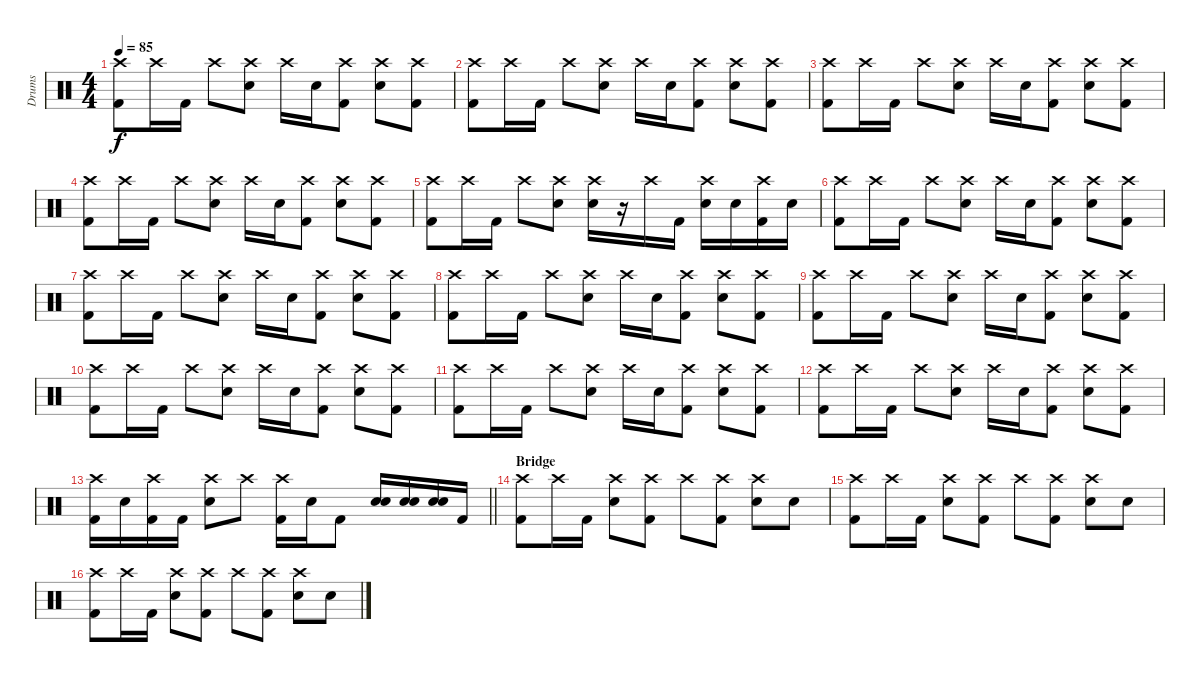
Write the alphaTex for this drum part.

\track ("Drums" "Drums") {instrument percussion}
\staff {score}
\articulation defaults
\ts (4 4)
\tempo 85
\clef neutral
\ks c
("Crash high (hit)" "Kick (hit) 2").8{dy f} "Crash high (hit)".16 "Kick (hit) 2".16 "Crash high (hit)".8 ("Crash high (hit)" "Electric Snare (hit)").8 "Crash high (hit)".16 "Electric Snare (hit)".16 ("Crash high (hit)" "Kick (hit) 2").8 ("Crash high (hit)" "Electric Snare (hit)").8 ("Crash high (hit)" "Kick (hit) 2").8 |
("Crash high (hit)" "Kick (hit) 2").8 "Crash high (hit)".16 "Kick (hit) 2".16 "Crash high (hit)".8 ("Crash high (hit)" "Electric Snare (hit)").8 "Crash high (hit)".16 "Electric Snare (hit)".16 ("Crash high (hit)" "Kick (hit) 2").8 ("Crash high (hit)" "Electric Snare (hit)").8 ("Crash high (hit)" "Kick (hit) 2").8 |
("Crash high (hit)" "Kick (hit) 2").8 "Crash high (hit)".16 "Kick (hit) 2".16 "Crash high (hit)".8 ("Crash high (hit)" "Electric Snare (hit)").8 "Crash high (hit)".16 "Electric Snare (hit)".16 ("Crash high (hit)" "Kick (hit) 2").8 ("Crash high (hit)" "Electric Snare (hit)").8 ("Crash high (hit)" "Kick (hit) 2").8 |
("Crash high (hit)" "Kick (hit) 2").8 "Crash high (hit)".16 "Kick (hit) 2".16 "Crash high (hit)".8 ("Crash high (hit)" "Electric Snare (hit)").8 "Crash high (hit)".16 "Electric Snare (hit)".16 ("Crash high (hit)" "Kick (hit) 2").8 ("Crash high (hit)" "Electric Snare (hit)").8 ("Crash high (hit)" "Kick (hit) 2").8 |
("Crash high (hit)" "Kick (hit) 2").8 "Crash high (hit)".16 "Kick (hit) 2".16 "Crash high (hit)".8 ("Crash high (hit)" "Electric Snare (hit)").8 ("Crash high (hit)" "Electric Snare (hit)").16 r.16 "Crash high (hit)".16 "Kick (hit) 2".16 ("Crash high (hit)" "Electric Snare (hit)").16 "Electric Snare (hit)".16 ("Crash high (hit)" "Kick (hit) 2").16 "Electric Snare (hit)".16 |
("Crash high (hit)" "Kick (hit) 2").8 "Crash high (hit)".16 "Kick (hit) 2".16 "Crash high (hit)".8 ("Crash high (hit)" "Electric Snare (hit)").8 "Crash high (hit)".16 "Electric Snare (hit)".16 ("Crash high (hit)" "Kick (hit) 2").8 ("Crash high (hit)" "Electric Snare (hit)").8 ("Crash high (hit)" "Kick (hit) 2").8 |
("Crash high (hit)" "Kick (hit) 2").8 "Crash high (hit)".16 "Kick (hit) 2".16 "Crash high (hit)".8 ("Crash high (hit)" "Electric Snare (hit)").8 "Crash high (hit)".16 "Electric Snare (hit)".16 ("Crash high (hit)" "Kick (hit) 2").8 ("Crash high (hit)" "Electric Snare (hit)").8 ("Crash high (hit)" "Kick (hit) 2").8 |
("Crash high (hit)" "Kick (hit) 2").8 "Crash high (hit)".16 "Kick (hit) 2".16 "Crash high (hit)".8 ("Crash high (hit)" "Electric Snare (hit)").8 "Crash high (hit)".16 "Electric Snare (hit)".16 ("Crash high (hit)" "Kick (hit) 2").8 ("Crash high (hit)" "Electric Snare (hit)").8 ("Crash high (hit)" "Kick (hit) 2").8 |
("Crash high (hit)" "Kick (hit) 2").8 "Crash high (hit)".16 "Kick (hit) 2".16 "Crash high (hit)".8 ("Crash high (hit)" "Electric Snare (hit)").8 "Crash high (hit)".16 "Electric Snare (hit)".16 ("Crash high (hit)" "Kick (hit) 2").8 ("Crash high (hit)" "Electric Snare (hit)").8 ("Crash high (hit)" "Kick (hit) 2").8 |
("Crash high (hit)" "Kick (hit) 2").8 "Crash high (hit)".16 "Kick (hit) 2".16 "Crash high (hit)".8 ("Crash high (hit)" "Electric Snare (hit)").8 "Crash high (hit)".16 "Electric Snare (hit)".16 ("Crash high (hit)" "Kick (hit) 2").8 ("Crash high (hit)" "Electric Snare (hit)").8 ("Crash high (hit)" "Kick (hit) 2").8 |
("Crash high (hit)" "Kick (hit) 2").8 "Crash high (hit)".16 "Kick (hit) 2".16 "Crash high (hit)".8 ("Crash high (hit)" "Electric Snare (hit)").8 "Crash high (hit)".16 "Electric Snare (hit)".16 ("Crash high (hit)" "Kick (hit) 2").8 ("Crash high (hit)" "Electric Snare (hit)").8 ("Crash high (hit)" "Kick (hit) 2").8 |
("Crash high (hit)" "Kick (hit) 2").8 "Crash high (hit)".16 "Kick (hit) 2".16 "Crash high (hit)".8 ("Crash high (hit)" "Electric Snare (hit)").8 "Crash high (hit)".16 "Electric Snare (hit)".16 ("Crash high (hit)" "Kick (hit) 2").8 ("Crash high (hit)" "Electric Snare (hit)").8 ("Crash high (hit)" "Kick (hit) 2").8 |
\barLineRight lightlight
("Crash high (hit)" "Kick (hit) 2").16 "Electric Snare (hit)".16 ("Crash high (hit)" "Kick (hit) 2").16 "Kick (hit) 2".16 ("Crash high (hit)" "Electric Snare (hit)").8 "Crash high (hit)".8 ("Crash high (hit)" "Kick (hit) 2").16 "Electric Snare (hit)".16 "Kick (hit) 2".8 ("Electric Snare (hit)" "Electric Snare (hit)").16 ("Electric Snare (hit)" "Electric Snare (hit)").16 ("Electric Snare (hit)" "Electric Snare (hit)").16 "Kick (hit) 2".16 |
\section ("" "Bridge")
("Crash high (hit)" "Kick (hit) 2").8 "Crash high (hit)".16 "Kick (hit) 2".16 ("Crash high (hit)" "Electric Snare (hit)").8 ("Crash high (hit)" "Kick (hit) 2").8 "Crash high (hit)".8 ("Crash high (hit)" "Kick (hit) 2").8 ("Crash high (hit)" "Electric Snare (hit)").8 "Electric Snare (hit)".8 |
("Crash high (hit)" "Kick (hit) 2").8 "Crash high (hit)".16 "Kick (hit) 2".16 ("Crash high (hit)" "Electric Snare (hit)").8 ("Crash high (hit)" "Kick (hit) 2").8 "Crash high (hit)".8 ("Crash high (hit)" "Kick (hit) 2").8 ("Crash high (hit)" "Electric Snare (hit)").8 "Electric Snare (hit)".8 |
("Crash high (hit)" "Kick (hit) 2").8 "Crash high (hit)".16 "Kick (hit) 2".16 ("Crash high (hit)" "Electric Snare (hit)").8 ("Crash high (hit)" "Kick (hit) 2").8 "Crash high (hit)".8 ("Crash high (hit)" "Kick (hit) 2").8 ("Crash high (hit)" "Electric Snare (hit)").8 "Electric Snare (hit)".8
